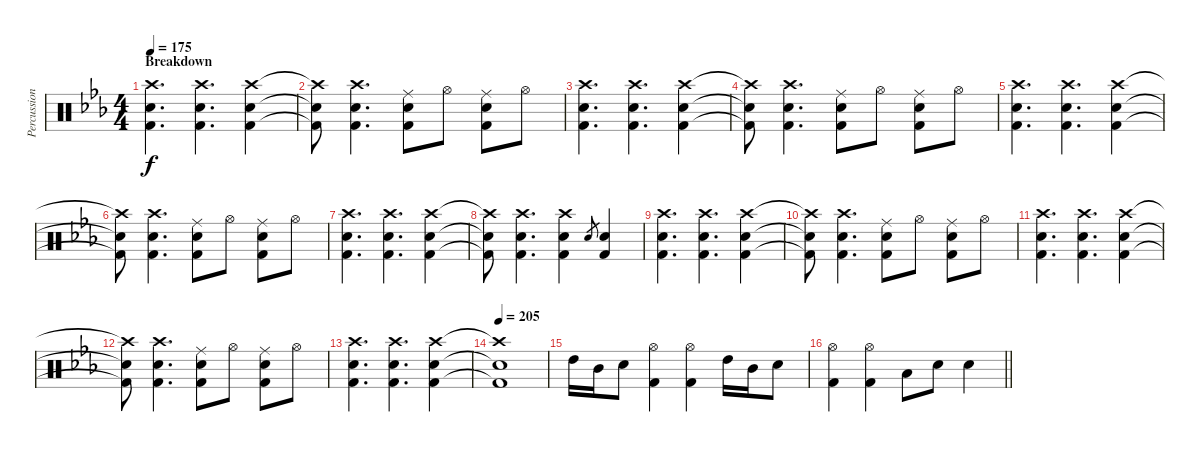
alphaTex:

\track ("Percussion" "Percussion") {instrument percussion}
\staff {score}
\articulation defaults
\ts (4 4)
\section ("" "Breakdown")
\tempo 175
\clef neutral
\ks eb
("Crash high (hit)" "Snare (hit) 2" "Kick (hit) 2").4{d dy f} ("Crash high (hit)" "Snare (hit) 2" "Kick (hit) 2").4{d} ("Crash high (hit)" "Snare (hit) 2" "Kick (hit) 2").4 |
("Crash high (hit)"{t} "Snare (hit) 2"{t} "Kick (hit) 2"{t}).8 ("Crash high (hit)" "Snare (hit) 2" "Kick (hit) 2").4{d} ("Ride (middle)" "Snare (hit) 2" "Kick (hit) 2").8 "Hi-Hat (open)".8 ("Ride (middle)" "Snare (hit) 2" "Kick (hit) 2").8 "Hi-Hat (open)".8 |
("Crash high (hit)" "Snare (hit) 2" "Kick (hit) 2").4{d} ("Crash high (hit)" "Snare (hit) 2" "Kick (hit) 2").4{d} ("Crash high (hit)" "Snare (hit) 2" "Kick (hit) 2").4 |
("Crash high (hit)"{t} "Snare (hit) 2"{t} "Kick (hit) 2"{t}).8 ("Crash high (hit)" "Snare (hit) 2" "Kick (hit) 2").4{d} ("Ride (middle)" "Snare (hit) 2" "Kick (hit) 2").8 "Hi-Hat (open)".8 ("Ride (middle)" "Snare (hit) 2" "Kick (hit) 2").8 "Hi-Hat (open)".8 |
("Crash high (hit)" "Snare (hit) 2" "Kick (hit) 2").4{d} ("Crash high (hit)" "Snare (hit) 2" "Kick (hit) 2").4{d} ("Crash high (hit)" "Snare (hit) 2" "Kick (hit) 2").4 |
("Crash high (hit)"{t} "Snare (hit) 2"{t} "Kick (hit) 2"{t}).8 ("Crash high (hit)" "Snare (hit) 2" "Kick (hit) 2").4{d} ("Ride (middle)" "Snare (hit) 2" "Kick (hit) 2").8 "Hi-Hat (open)".8 ("Ride (middle)" "Snare (hit) 2" "Kick (hit) 2").8 "Hi-Hat (open)".8 |
("Crash high (hit)" "Snare (hit) 2" "Kick (hit) 2").4{d} ("Crash high (hit)" "Snare (hit) 2" "Kick (hit) 2").4{d} ("Crash high (hit)" "Snare (hit) 2" "Kick (hit) 2").4 |
("Crash high (hit)"{t} "Snare (hit) 2"{t} "Kick (hit) 2"{t}).8 ("Crash high (hit)" "Snare (hit) 2" "Kick (hit) 2").4{d} ("Crash high (hit)" "Snare (hit) 2" "Kick (hit) 2").4 "Snare (hit) 2".8{gr} ("Snare (hit) 2" "Kick (hit) 2").4 |
("Crash high (hit)" "Snare (hit) 2" "Kick (hit) 2").4{d} ("Crash high (hit)" "Snare (hit) 2" "Kick (hit) 2").4{d} ("Crash high (hit)" "Snare (hit) 2" "Kick (hit) 2").4 |
("Crash high (hit)"{t} "Snare (hit) 2"{t} "Kick (hit) 2"{t}).8 ("Crash high (hit)" "Snare (hit) 2" "Kick (hit) 2").4{d} ("Ride (middle)" "Snare (hit) 2" "Kick (hit) 2").8 "Hi-Hat (open)".8 ("Ride (middle)" "Snare (hit) 2" "Kick (hit) 2").8 "Hi-Hat (open)".8 |
("Crash high (hit)" "Snare (hit) 2" "Kick (hit) 2").4{d} ("Crash high (hit)" "Snare (hit) 2" "Kick (hit) 2").4{d} ("Crash high (hit)" "Snare (hit) 2" "Kick (hit) 2").4 |
("Crash high (hit)"{t} "Snare (hit) 2"{t} "Kick (hit) 2"{t}).8 ("Crash high (hit)" "Snare (hit) 2" "Kick (hit) 2").4{d} ("Ride (middle)" "Snare (hit) 2" "Kick (hit) 2").8 "Hi-Hat (open)".8 ("Ride (middle)" "Snare (hit) 2" "Kick (hit) 2").8 "Hi-Hat (open)".8 |
("Crash high (hit)" "Snare (hit) 2" "Kick (hit) 2").4{d} ("Crash high (hit)" "Snare (hit) 2" "Kick (hit) 2").4{d} ("Crash high (hit)" "Snare (hit) 2" "Kick (hit) 2").4 |
\tempo 205
("Crash high (hit)"{t} "Snare (hit) 2"{t} "Kick (hit) 2"{t}).1 |
"High Tom (hit)".16 "Mid Tom (hit)".16 "Snare (hit) 2".8 ("Hi-Hat (open)" "Kick (hit) 2").4 ("Hi-Hat (open)" "Kick (hit) 2").4 "High Tom (hit)".16 "Mid Tom (hit)".16 "Snare (hit) 2".8 |
\barLineRight lightlight
("Hi-Hat (open)" "Kick (hit) 2").4 ("Hi-Hat (open)" "Kick (hit) 2").4 "Low Tom (hit)".8 "Snare (hit) 2".8 "Snare (hit) 2".4
